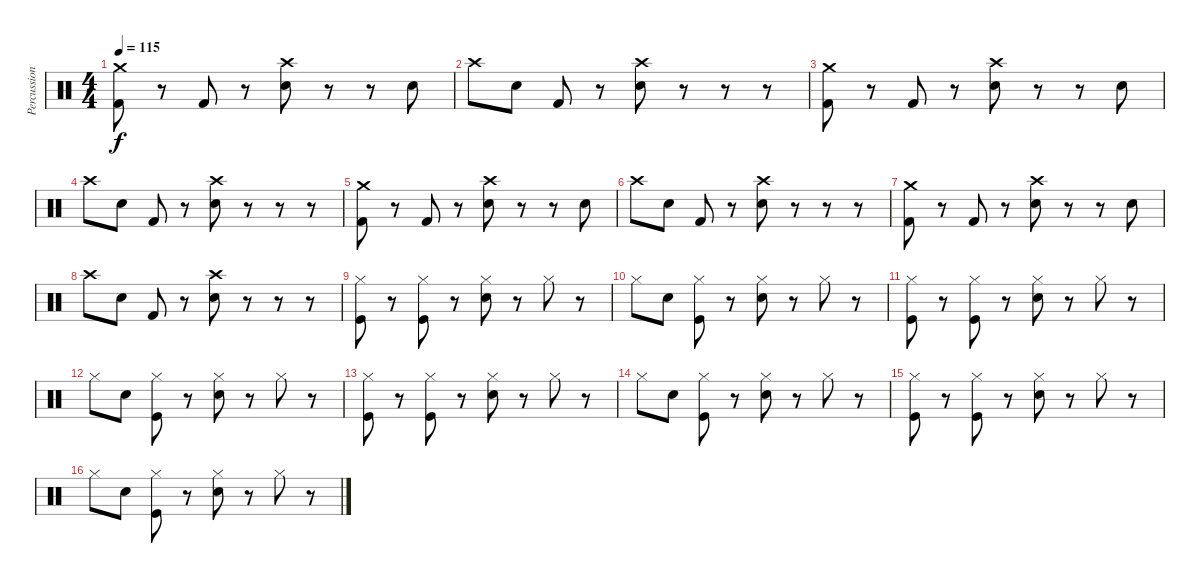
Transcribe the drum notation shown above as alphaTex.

\track ("Percussion" "Percussion") {instrument percussion}
\staff {score}
\articulation defaults
\ts (4 4)
\tempo 115
\clef neutral
\ks c
("Kick (hit) 2" "Crash medium (hit)").8{dy f} r.8 "Kick (hit) 2".8 r.8 ("Electric Snare (hit)" "Crash high (hit)").8 r.8 r.8 "Electric Snare (hit)".8 |
"Crash high (hit)".8 "Electric Snare (hit)".8 "Kick (hit) 2".8 r.8 ("Electric Snare (hit)" "Crash high (hit)").8 r.8 r.8 r.8 |
("Kick (hit) 2" "Crash medium (hit)").8 r.8 "Kick (hit) 2".8 r.8 ("Electric Snare (hit)" "Crash high (hit)").8 r.8 r.8 "Electric Snare (hit)".8 |
"Crash high (hit)".8 "Electric Snare (hit)".8 "Kick (hit) 2".8 r.8 ("Electric Snare (hit)" "Crash high (hit)").8 r.8 r.8 r.8 |
("Kick (hit) 2" "Crash medium (hit)").8 r.8 "Kick (hit) 2".8 r.8 ("Electric Snare (hit)" "Crash high (hit)").8 r.8 r.8 "Electric Snare (hit)".8 |
"Crash high (hit)".8 "Electric Snare (hit)".8 "Kick (hit) 2".8 r.8 ("Electric Snare (hit)" "Crash high (hit)").8 r.8 r.8 r.8 |
("Kick (hit) 2" "Crash medium (hit)").8 r.8 "Kick (hit) 2".8 r.8 ("Electric Snare (hit)" "Crash high (hit)").8 r.8 r.8 "Electric Snare (hit)".8 |
"Crash high (hit)".8 "Electric Snare (hit)".8 "Kick (hit) 2".8 r.8 ("Electric Snare (hit)" "Crash high (hit)").8 r.8 r.8 r.8 |
("Kick (hit)" "Hi-Hat (closed)").8 r.8 ("Kick (hit)" "Hi-Hat (closed)").8 r.8 ("Snare (hit) 2" "Hi-Hat (closed)").8 r.8 "Hi-Hat (closed)".8 r.8 |
"Hi-Hat (closed)".8 "Snare (hit) 2".8 ("Kick (hit)" "Hi-Hat (closed)").8 r.8 ("Snare (hit) 2" "Hi-Hat (closed)").8 r.8 "Hi-Hat (closed)".8 r.8 |
("Kick (hit)" "Hi-Hat (closed)").8 r.8 ("Kick (hit)" "Hi-Hat (closed)").8 r.8 ("Snare (hit) 2" "Hi-Hat (closed)").8 r.8 "Hi-Hat (closed)".8 r.8 |
"Hi-Hat (closed)".8 "Snare (hit) 2".8 ("Kick (hit)" "Hi-Hat (closed)").8 r.8 ("Snare (hit) 2" "Hi-Hat (closed)").8 r.8 "Hi-Hat (closed)".8 r.8 |
("Kick (hit)" "Hi-Hat (closed)").8 r.8 ("Kick (hit)" "Hi-Hat (closed)").8 r.8 ("Snare (hit) 2" "Hi-Hat (closed)").8 r.8 "Hi-Hat (closed)".8 r.8 |
"Hi-Hat (closed)".8 "Snare (hit) 2".8 ("Kick (hit)" "Hi-Hat (closed)").8 r.8 ("Snare (hit) 2" "Hi-Hat (closed)").8 r.8 "Hi-Hat (closed)".8 r.8 |
("Kick (hit)" "Hi-Hat (closed)").8 r.8 ("Kick (hit)" "Hi-Hat (closed)").8 r.8 ("Snare (hit) 2" "Hi-Hat (closed)").8 r.8 "Hi-Hat (closed)".8 r.8 |
"Hi-Hat (closed)".8 "Snare (hit) 2".8 ("Kick (hit)" "Hi-Hat (closed)").8 r.8 ("Snare (hit) 2" "Hi-Hat (closed)").8 r.8 "Hi-Hat (closed)".8 r.8
